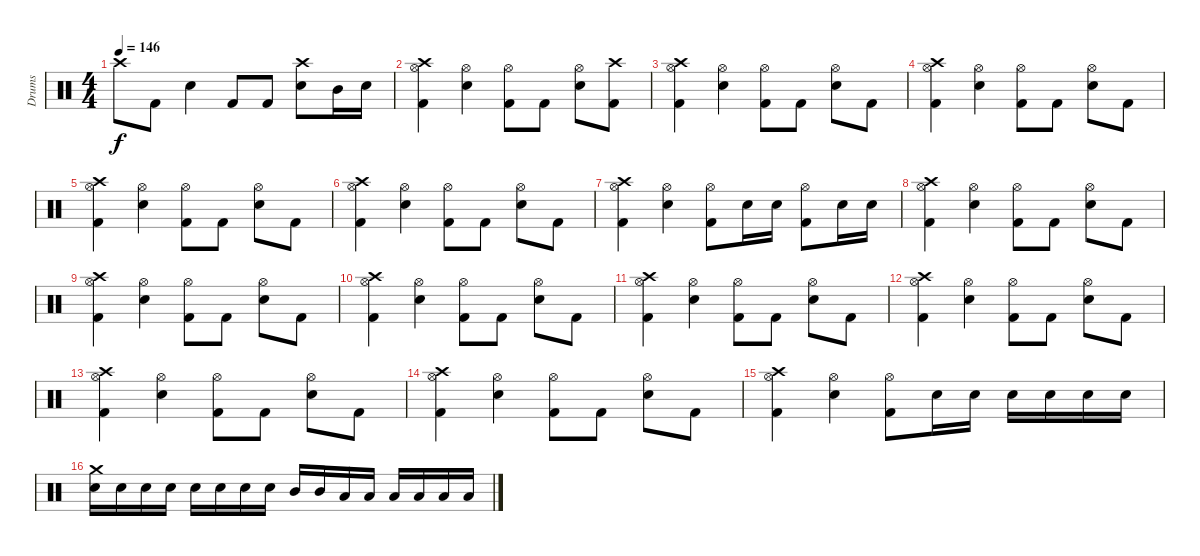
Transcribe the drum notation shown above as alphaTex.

\track ("Drums" "Drums") {instrument percussion}
\staff {score}
\articulation defaults
\ts (4 4)
\tempo 146
\clef neutral
\ks c "Crash high (hit)".8{dy f} "Kick (hit) 2".8 "Electric Snare (hit)".4 "Kick (hit) 2".8 "Kick (hit) 2".8
("Crash high (hit)" "Electric Snare (hit)").8 "Mid Tom (hit)".16 "Electric Snare (hit)".16 |
("Crash high (hit)" "Hi-Hat (open)" "Kick (hit) 2").4 ("Hi-Hat (open)" "Electric Snare (hit)").4 ("Hi-Hat (open)" "Kick (hit) 2").8 "Kick (hit) 2".8 ("Hi-Hat (open)" "Electric Snare (hit)").8 ("Crash high (hit)" "Kick (hit) 2").8 |
("Crash high (hit)" "Hi-Hat (open)" "Kick (hit) 2").4 ("Hi-Hat (open)" "Electric Snare (hit)").4 ("Hi-Hat (open)" "Kick (hit) 2").8 "Kick (hit) 2".8 ("Hi-Hat (open)" "Electric Snare (hit)").8 "Kick (hit) 2".8 |
("Crash high (hit)" "Hi-Hat (open)" "Kick (hit) 2").4 ("Hi-Hat (open)" "Electric Snare (hit)").4 ("Hi-Hat (open)" "Kick (hit) 2").8 "Kick (hit) 2".8 ("Hi-Hat (open)" "Electric Snare (hit)").8 "Kick (hit) 2".8 |
("Crash high (hit)" "Hi-Hat (open)" "Kick (hit) 2").4 ("Hi-Hat (open)" "Electric Snare (hit)").4 ("Hi-Hat (open)" "Kick (hit) 2").8 "Kick (hit) 2".8 ("Hi-Hat (open)" "Electric Snare (hit)").8 "Kick (hit) 2".8 |
("Crash high (hit)" "Hi-Hat (open)" "Kick (hit) 2").4 ("Hi-Hat (open)" "Electric Snare (hit)").4 ("Hi-Hat (open)" "Kick (hit) 2").8 "Kick (hit) 2".8 ("Hi-Hat (open)" "Electric Snare (hit)").8 "Kick (hit) 2".8 |
("Crash high (hit)" "Hi-Hat (open)" "Kick (hit) 2").4 ("Hi-Hat (open)" "Electric Snare (hit)").4 ("Hi-Hat (open)" "Kick (hit) 2").8 "Electric Snare (hit)".16 "Electric Snare (hit)".16 ("Hi-Hat (open)" "Kick (hit) 2").8 "Electric Snare (hit)".16 "Electric Snare (hit)".16 |
("Crash high (hit)" "Hi-Hat (open)" "Kick (hit) 2").4 ("Hi-Hat (open)" "Electric Snare (hit)").4 ("Hi-Hat (open)" "Kick (hit) 2").8 "Kick (hit) 2".8 ("Hi-Hat (open)" "Electric Snare (hit)").8 "Kick (hit) 2".8 |
("Crash high (hit)" "Hi-Hat (open)" "Kick (hit) 2").4 ("Hi-Hat (open)" "Electric Snare (hit)").4 ("Hi-Hat (open)" "Kick (hit) 2").8 "Kick (hit) 2".8 ("Hi-Hat (open)" "Electric Snare (hit)").8 "Kick (hit) 2".8 |
("Crash high (hit)" "Hi-Hat (open)" "Kick (hit) 2").4 ("Hi-Hat (open)" "Electric Snare (hit)").4 ("Hi-Hat (open)" "Kick (hit) 2").8 "Kick (hit) 2".8 ("Hi-Hat (open)" "Electric Snare (hit)").8 "Kick (hit) 2".8 |
("Crash high (hit)" "Hi-Hat (open)" "Kick (hit) 2").4 ("Hi-Hat (open)" "Electric Snare (hit)").4 ("Hi-Hat (open)" "Kick (hit) 2").8 "Kick (hit) 2".8 ("Hi-Hat (open)" "Electric Snare (hit)").8 "Kick (hit) 2".8 |
("Crash high (hit)" "Hi-Hat (open)" "Kick (hit) 2").4 ("Hi-Hat (open)" "Electric Snare (hit)").4 ("Hi-Hat (open)" "Kick (hit) 2").8 "Kick (hit) 2".8 ("Hi-Hat (open)" "Electric Snare (hit)").8 "Kick (hit) 2".8 |
("Crash high (hit)" "Hi-Hat (open)" "Kick (hit) 2").4 ("Hi-Hat (open)" "Electric Snare (hit)").4 ("Hi-Hat (open)" "Kick (hit) 2").8 "Kick (hit) 2".8 ("Hi-Hat (open)" "Electric Snare (hit)").8 "Kick (hit) 2".8 |
("Crash high (hit)" "Hi-Hat (open)" "Kick (hit) 2").4 ("Hi-Hat (open)" "Electric Snare (hit)").4 ("Hi-Hat (open)" "Kick (hit) 2").8 "Kick (hit) 2".8 ("Hi-Hat (open)" "Electric Snare (hit)").8 "Kick (hit) 2".8 |
("Crash high (hit)" "Hi-Hat (open)" "Kick (hit) 2").4 ("Hi-Hat (open)" "Electric Snare (hit)").4 ("Hi-Hat (open)" "Kick (hit) 2").8 "Electric Snare (hit)".16 "Electric Snare (hit)".16 "Electric Snare (hit)".16 "Electric Snare (hit)".16 "Electric Snare (hit)".16 "Electric Snare (hit)".16 |
("Crash medium (hit)" "Electric Snare (hit)").16 "Electric Snare (hit)".16 "Electric Snare (hit)".16 "Electric Snare (hit)".16 "Electric Snare (hit)".16 "Electric Snare (hit)".16 "Electric Snare (hit)".16 "Electric Snare (hit)".16 "Mid Tom (hit)".16 "Mid Tom (hit)".16 "Low Tom (hit)".16 "Low Tom (hit)".16 "Low Tom (hit)".16 "Low Tom (hit)".16 "Low Tom (hit)".16 "Low Tom (hit)".16
